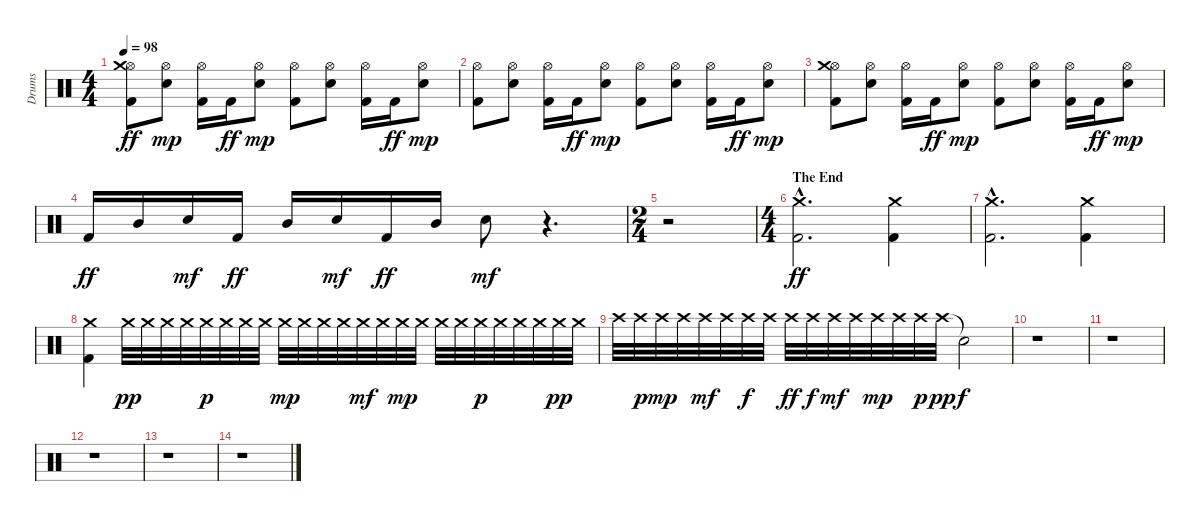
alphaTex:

\track ("Drums" "Drums") {instrument percussion}
\staff {score}
\articulation defaults
\ts (4 4)
\tempo 98
\clef neutral
\ks c
("Kick (hit) 2" "Hi-Hat (open)" "Crash medium (hit)").8{dy ff} ("Hi-Hat (open)" "Snare (hit) 2").8{dy mp} ("Kick (hit) 2" "Hi-Hat (open)").16 "Kick (hit) 2".16{dy ff} ("Hi-Hat (open)" "Snare (hit) 2").8{dy mp} ("Kick (hit) 2" "Hi-Hat (open)").8 ("Hi-Hat (open)" "Snare (hit) 2").8 ("Kick (hit) 2" "Hi-Hat (open)").16 "Kick (hit) 2".16{dy ff} ("Hi-Hat (open)" "Snare (hit) 2").8{dy mp} |
("Kick (hit) 2" "Hi-Hat (open)").8 ("Hi-Hat (open)" "Snare (hit) 2").8 ("Kick (hit) 2" "Hi-Hat (open)").16 "Kick (hit) 2".16{dy ff} ("Hi-Hat (open)" "Snare (hit) 2").8{dy mp} ("Kick (hit) 2" "Hi-Hat (open)").8 ("Hi-Hat (open)" "Snare (hit) 2").8 ("Kick (hit) 2" "Hi-Hat (open)").16 "Kick (hit) 2".16{dy ff} ("Hi-Hat (open)" "Snare (hit) 2").8{dy mp} |
("Kick (hit) 2" "Hi-Hat (open)" "Crash medium (hit)").8 ("Hi-Hat (open)" "Snare (hit) 2").8 ("Kick (hit) 2" "Hi-Hat (open)").16 "Kick (hit) 2".16{dy ff} ("Hi-Hat (open)" "Snare (hit) 2").8{dy mp} ("Kick (hit) 2" "Hi-Hat (open)").8 ("Hi-Hat (open)" "Snare (hit) 2").8 ("Kick (hit) 2" "Hi-Hat (open)").16 "Kick (hit) 2".16{dy ff} ("Hi-Hat (open)" "Snare (hit) 2").8{dy mp} |
"Kick (hit) 2".16{dy ff} "Mid Tom (hit)".16 "Snare (hit) 2".16{dy mf} "Kick (hit) 2".16{dy ff} "Mid Tom (hit)".16 "Snare (hit) 2".16{dy mf} "Kick (hit) 2".16{dy ff} "Mid Tom (hit)".16 "Snare (hit) 2".8{dy mf} r.4{d} |
\ts (2 4)
r.2 |
\ts (4 4)
\section ("" "The End")
("Kick (hit) 2"{hac} "Crash medium (hit)"{hac}).2{d dy ff} ("Kick (hit) 2" "Crash medium (hit)").4 |
("Kick (hit) 2"{hac} "Crash medium (hit)"{hac}).2{d} ("Kick (hit) 2" "Crash medium (hit)").4 |
("Kick (hit) 2" "Crash medium (hit)").4 "Crash medium (hit)".32{dy pp} "Crash medium (hit)".32 "Crash medium (hit)".32 "Crash medium (hit)".32 "Crash medium (hit)".32{dy p} "Crash medium (hit)".32 "Crash medium (hit)".32 "Crash medium (hit)".32 "Crash medium (hit)".32{dy mp} "Crash medium (hit)".32 "Crash medium (hit)".32 "Crash medium (hit)".32 "Crash medium (hit)".32{dy mf} "Crash medium (hit)".32 "Crash medium (hit)".32{dy mp} "Crash medium (hit)".32 "Crash medium (hit)".32 "Crash medium (hit)".32 "Crash medium (hit)".32{dy p} "Crash medium (hit)".32 "Crash medium (hit)".32 "Crash medium (hit)".32 "Crash medium (hit)".32{dy pp} "Crash medium (hit)".32 |
"Crash high (hit)".32 "Crash high (hit)".32{dy p} "Crash high (hit)".32{dy mp} "Crash high (hit)".32 "Crash high (hit)".32{dy mf} "Crash high (hit)".32 "Crash high (hit)".32{dy f} "Crash high (hit)".32 "Crash high (hit)".32{dy ff} "Crash high (hit)".32{dy f} "Crash high (hit)".32{dy mf} "Crash high (hit)".32 "Crash high (hit)".32{dy mp} "Crash high (hit)".32 "Crash high (hit)".32{dy p} "Crash high (hit)".32{dy pp} "Snare (hit)"{t}.2{dy f} |
r.1 |
r.1 |
r.1 |
r.1 |
r.1
